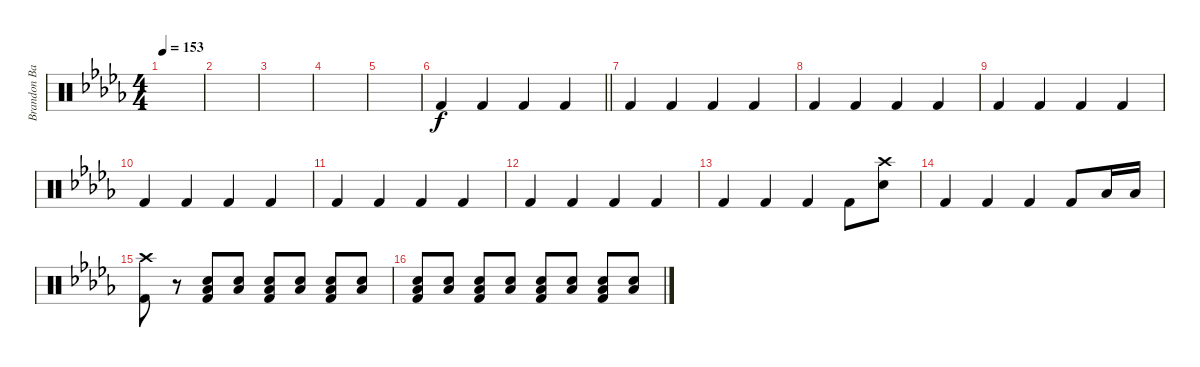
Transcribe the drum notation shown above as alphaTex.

\track ("Brandon Barnes" "Brandon Ba") {instrument percussion}
\staff {score}
\articulation defaults
\ts (4 4)
\tempo 153
\clef neutral
\ks db
|
|
|
|
|
\barLineRight lightlight "Kick (hit) 2".4 "Kick (hit) 2".4 "Kick (hit) 2".4 "Kick (hit) 2".4
|
"Kick (hit) 2".4 "Kick (hit) 2".4 "Kick (hit) 2".4 "Kick (hit) 2".4 |
"Kick (hit) 2".4 "Kick (hit) 2".4 "Kick (hit) 2".4 "Kick (hit) 2".4 |
"Kick (hit) 2".4 "Kick (hit) 2".4 "Kick (hit) 2".4 "Kick (hit) 2".4 |
"Kick (hit) 2".4 "Kick (hit) 2".4 "Kick (hit) 2".4 "Kick (hit) 2".4 |
"Kick (hit) 2".4 "Kick (hit) 2".4 "Kick (hit) 2".4 "Kick (hit) 2".4 |
"Kick (hit) 2".4 "Kick (hit) 2".4 "Kick (hit) 2".4 "Kick (hit) 2".4 |
"Kick (hit) 2".4 "Kick (hit) 2".4 "Kick (hit) 2".4 "Kick (hit) 2".8 ("Crash high (hit)" "Snare (hit) 2").8 |
"Kick (hit) 2".4 "Kick (hit) 2".4 "Kick (hit) 2".4 "Kick (hit) 2".8 "Low Floor Tom (hit)".16 "Low Floor Tom (hit)".16 |
("Crash high (hit)" "Kick (hit) 2").8 r.8 ("Low Floor Tom (hit)" "Snare (hit) 2" "Kick (hit) 2").8 ("Low Floor Tom (hit)" "Snare (hit) 2").8 ("Low Floor Tom (hit)" "Snare (hit) 2" "Kick (hit) 2").8 ("Low Floor Tom (hit)" "Snare (hit) 2").8 ("Low Floor Tom (hit)" "Snare (hit) 2" "Kick (hit) 2").8 ("Low Floor Tom (hit)" "Snare (hit) 2").8 |
("Low Floor Tom (hit)" "Snare (hit) 2" "Kick (hit) 2").8 ("Low Floor Tom (hit)" "Snare (hit) 2").8 ("Low Floor Tom (hit)" "Snare (hit) 2" "Kick (hit) 2").8 ("Low Floor Tom (hit)" "Snare (hit) 2").8 ("Low Floor Tom (hit)" "Snare (hit) 2" "Kick (hit) 2").8 ("Low Floor Tom (hit)" "Snare (hit) 2").8 ("Low Floor Tom (hit)" "Snare (hit) 2" "Kick (hit) 2").8 ("Low Floor Tom (hit)" "Snare (hit) 2").8
